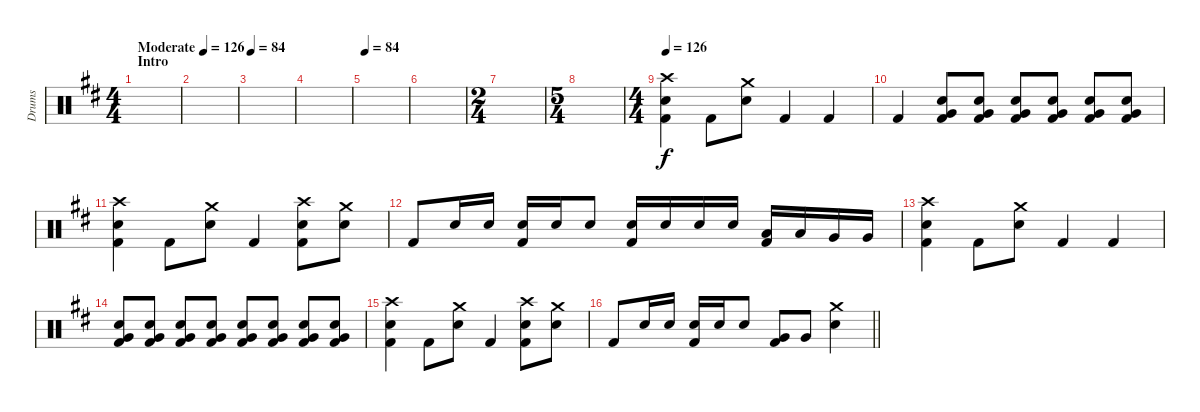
\track ("Drums" "Drums") {instrument percussion}
\staff {score}
\articulation defaults
\ts (4 4)
\section ("" "Intro")
\tempo (126 "Moderate")
\tempo 84
\tempo (126 "Moderate")
\clef neutral
\ks d
|
|
\tempo 84
|
|
\tempo 84
|
|
\ts (2 4)
|
\ts (5 4)
|
\ts (4 4)
\tempo 126
("Crash high (hit)" "Electric Snare (hit)" "Kick (hit) 2").4 "Kick (hit) 2".8 ("Crash medium (hit)" "Electric Snare (hit)").8 "Kick (hit) 2".4 "Kick (hit) 2".4 |
"Kick (hit) 2".4 ("Very Low Tom (hit)" "Electric Snare (hit)" "Kick (hit) 2").8 ("Very Low Tom (hit)" "Electric Snare (hit)" "Kick (hit) 2").8 ("Very Low Tom (hit)" "Electric Snare (hit)" "Kick (hit) 2").8 ("Very Low Tom (hit)" "Electric Snare (hit)" "Kick (hit) 2").8 ("Very Low Tom (hit)" "Electric Snare (hit)" "Kick (hit) 2").8 ("Very Low Tom (hit)" "Electric Snare (hit)" "Kick (hit) 2").8 |
("Crash high (hit)" "Electric Snare (hit)" "Kick (hit) 2").4 "Kick (hit) 2".8 ("Crash medium (hit)" "Electric Snare (hit)").8 "Kick (hit) 2".4 ("Crash high (hit)" "Electric Snare (hit)" "Kick (hit) 2").8 ("Crash medium (hit)" "Electric Snare (hit)").8 |
"Kick (hit) 2".8 "Electric Snare (hit)".16 "Electric Snare (hit)".16 ("Electric Snare (hit)" "Kick (hit) 2").16 "Electric Snare (hit)".16 "Electric Snare (hit)".8 ("Electric Snare (hit)" "Kick (hit) 2").16 "Electric Snare (hit)".16 "Electric Snare (hit)".16 "Electric Snare (hit)".16 ("Low Tom (hit)" "Kick (hit) 2").16 "Low Tom (hit)".16 "Very Low Tom (hit)".16 "Very Low Tom (hit)".16 |
("Crash high (hit)" "Electric Snare (hit)" "Kick (hit) 2").4 "Kick (hit) 2".8 ("Crash medium (hit)" "Electric Snare (hit)").8 "Kick (hit) 2".4 "Kick (hit) 2".4 |
("Very Low Tom (hit)" "Electric Snare (hit)" "Kick (hit) 2").8 ("Very Low Tom (hit)" "Electric Snare (hit)" "Kick (hit) 2").8 ("Very Low Tom (hit)" "Electric Snare (hit)" "Kick (hit) 2").8 ("Very Low Tom (hit)" "Electric Snare (hit)" "Kick (hit) 2").8 ("Very Low Tom (hit)" "Electric Snare (hit)" "Kick (hit) 2").8 ("Very Low Tom (hit)" "Electric Snare (hit)" "Kick (hit) 2").8 ("Very Low Tom (hit)" "Electric Snare (hit)" "Kick (hit) 2").8 ("Very Low Tom (hit)" "Electric Snare (hit)" "Kick (hit) 2").8 |
("Crash high (hit)" "Electric Snare (hit)" "Kick (hit) 2").4 "Kick (hit) 2".8 ("Crash medium (hit)" "Electric Snare (hit)").8 "Kick (hit) 2".4 ("Crash high (hit)" "Electric Snare (hit)" "Kick (hit) 2").8 ("Crash medium (hit)" "Electric Snare (hit)").8 |
\barLineRight lightlight "Kick (hit) 2".8 "Electric Snare (hit)".16 "Electric Snare (hit)".16
("Electric Snare (hit)" "Kick (hit) 2").16 "Electric Snare (hit)".16 "Electric Snare (hit)".8 ("Very Low Tom (hit)" "Kick (hit) 2").8 "Very Low Tom (hit)".8 ("Crash medium (hit)" "Electric Snare (hit)").4
